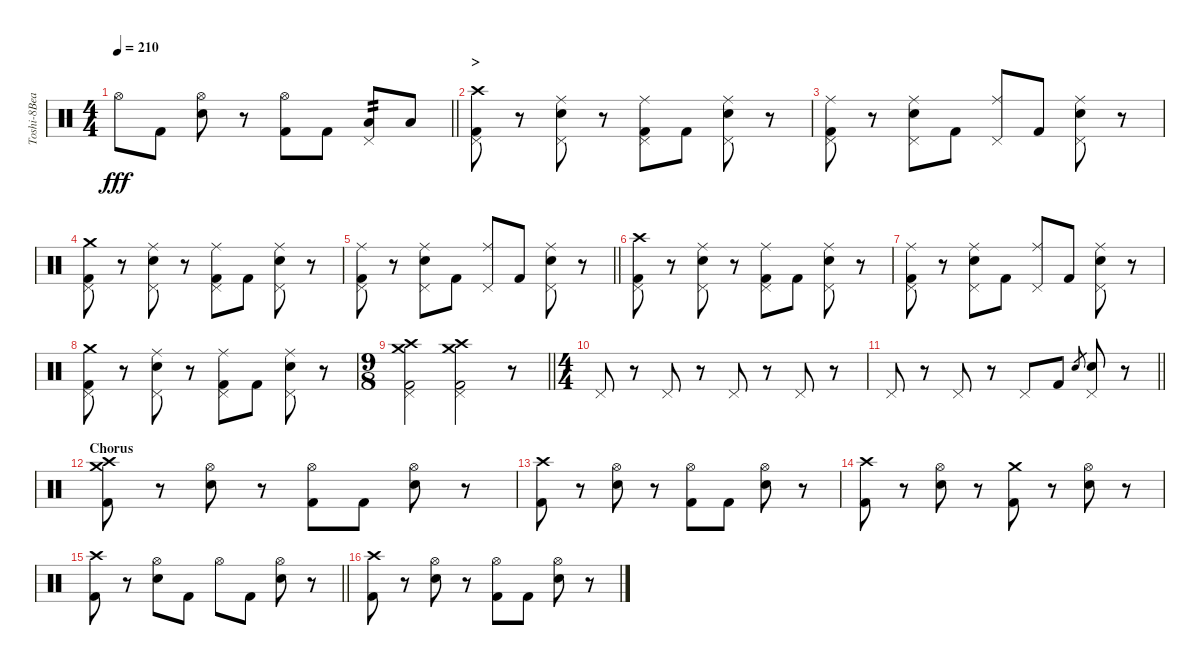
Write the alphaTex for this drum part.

\track ("Toshi-8Beat" "Toshi-8Bea") {instrument percussion}
\staff {score}
\articulation defaults
\ts (4 4)
\tempo 210
\clef neutral
\barLineRight lightlight
\ks c "Hi-Hat (open)".8{dy fff} "Kick (hit) 2".8
("Hi-Hat (open)" "Snare (hit) 2").8 r.8 ("Hi-Hat (open)" "Kick (hit) 2").8 "Kick (hit) 2".8 ("Pedal Hi-Hat (hit)" "Low Tom (hit)").8{tp 2} "Low Tom (hit)".8 |
\section ("" ">")
("Pedal Hi-Hat (hit)" "Kick (hit) 2" "Crash high (hit)").8 r.8 ("Pedal Hi-Hat (hit)" "Snare (hit) 2" "Ride (middle)").8 r.8 ("Pedal Hi-Hat (hit)" "Kick (hit) 2" "Ride (middle)").8 "Kick (hit) 2".8 ("Pedal Hi-Hat (hit)" "Snare (hit) 2" "Ride (middle)").8 r.8 |
("Pedal Hi-Hat (hit)" "Kick (hit) 2" "Ride (middle)").8 r.8 ("Pedal Hi-Hat (hit)" "Snare (hit) 2" "Ride (middle)").8 "Kick (hit) 2".8 ("Pedal Hi-Hat (hit)" "Ride (middle)").8 "Kick (hit) 2".8 ("Pedal Hi-Hat (hit)" "Snare (hit) 2" "Ride (middle)").8 r.8 |
("Pedal Hi-Hat (hit)" "Kick (hit) 2" "Crash medium (hit)").8 r.8 ("Pedal Hi-Hat (hit)" "Snare (hit) 2" "Ride (middle)").8 r.8 ("Pedal Hi-Hat (hit)" "Kick (hit) 2" "Ride (middle)").8 "Kick (hit) 2".8 ("Pedal Hi-Hat (hit)" "Snare (hit) 2" "Ride (middle)").8 r.8 |
\barLineRight lightlight
("Pedal Hi-Hat (hit)" "Kick (hit) 2" "Ride (middle)").8 r.8 ("Pedal Hi-Hat (hit)" "Snare (hit) 2" "Ride (middle)").8 "Kick (hit) 2".8 ("Pedal Hi-Hat (hit)" "Ride (middle)").8 "Kick (hit) 2".8 ("Pedal Hi-Hat (hit)" "Snare (hit) 2" "Ride (middle)").8 r.8 |
("Pedal Hi-Hat (hit)" "Kick (hit) 2" "Crash high (hit)").8 r.8 ("Pedal Hi-Hat (hit)" "Snare (hit) 2" "Ride (middle)").8 r.8 ("Pedal Hi-Hat (hit)" "Kick (hit) 2" "Ride (middle)").8 "Kick (hit) 2".8 ("Pedal Hi-Hat (hit)" "Snare (hit) 2" "Ride (middle)").8 r.8 |
("Pedal Hi-Hat (hit)" "Kick (hit) 2" "Ride (middle)").8 r.8 ("Pedal Hi-Hat (hit)" "Snare (hit) 2" "Ride (middle)").8 "Kick (hit) 2".8 ("Pedal Hi-Hat (hit)" "Ride (middle)").8 "Kick (hit) 2".8 ("Pedal Hi-Hat (hit)" "Snare (hit) 2" "Ride (middle)").8 r.8 |
("Pedal Hi-Hat (hit)" "Kick (hit) 2" "Crash medium (hit)").8 r.8 ("Pedal Hi-Hat (hit)" "Snare (hit) 2" "Ride (middle)").8 r.8 ("Pedal Hi-Hat (hit)" "Kick (hit) 2" "Ride (middle)").8 "Kick (hit) 2".8 ("Pedal Hi-Hat (hit)" "Snare (hit) 2" "Ride (middle)").8 r.8 |
\ts (9 8)
\barLineRight lightlight
("Pedal Hi-Hat (hit)" "Kick (hit) 2" "Crash medium (hit)" "Crash high (hit)").2 ("Pedal Hi-Hat (hit)" "Kick (hit) 2" "Crash medium (hit)" "Crash high (hit)").2 r.8 |
\ts (4 4)
"Pedal Hi-Hat (hit)".8 r.8 "Pedal Hi-Hat (hit)".8 r.8 "Pedal Hi-Hat (hit)".8 r.8 "Pedal Hi-Hat (hit)".8 r.8 |
\barLineRight lightlight "Pedal Hi-Hat (hit)".8
r.8 "Pedal Hi-Hat (hit)".8 r.8 "Pedal Hi-Hat (hit)".8 "Kick (hit) 2".8 "Snare (hit) 2".8{gr} ("Pedal Hi-Hat (hit)" "Snare (hit) 2").8 r.8 |
\section ("" "Chorus")
("Kick (hit) 2" "Crash high (hit)" "Crash medium (hit)").8 r.8 ("Hi-Hat (open)" "Snare (hit) 2").8 r.8 ("Hi-Hat (open)" "Kick (hit) 2").8 "Kick (hit) 2".8 ("Hi-Hat (open)" "Snare (hit) 2").8 r.8 |
("Kick (hit) 2" "Crash high (hit)").8 r.8 ("Hi-Hat (open)" "Snare (hit) 2").8 r.8 ("Hi-Hat (open)" "Kick (hit) 2").8 "Kick (hit) 2".8 ("Hi-Hat (open)" "Snare (hit) 2").8 r.8 |
("Kick (hit) 2" "Crash high (hit)").8 r.8 ("Hi-Hat (open)" "Snare (hit) 2").8 r.8 ("Kick (hit) 2" "Crash medium (hit)").8 r.8 ("Hi-Hat (open)" "Snare (hit) 2").8 r.8 |
\barLineRight lightlight
("Kick (hit) 2" "Crash high (hit)").8 r.8 ("Hi-Hat (open)" "Snare (hit) 2").8 "Kick (hit) 2".8 "Hi-Hat (open)".8 "Kick (hit) 2".8 ("Hi-Hat (open)" "Snare (hit) 2").8 r.8 |
("Kick (hit) 2" "Crash high (hit)").8 r.8 ("Hi-Hat (open)" "Snare (hit) 2").8 r.8 ("Hi-Hat (open)" "Kick (hit) 2").8 "Kick (hit) 2".8 ("Hi-Hat (open)" "Snare (hit) 2").8 r.8
